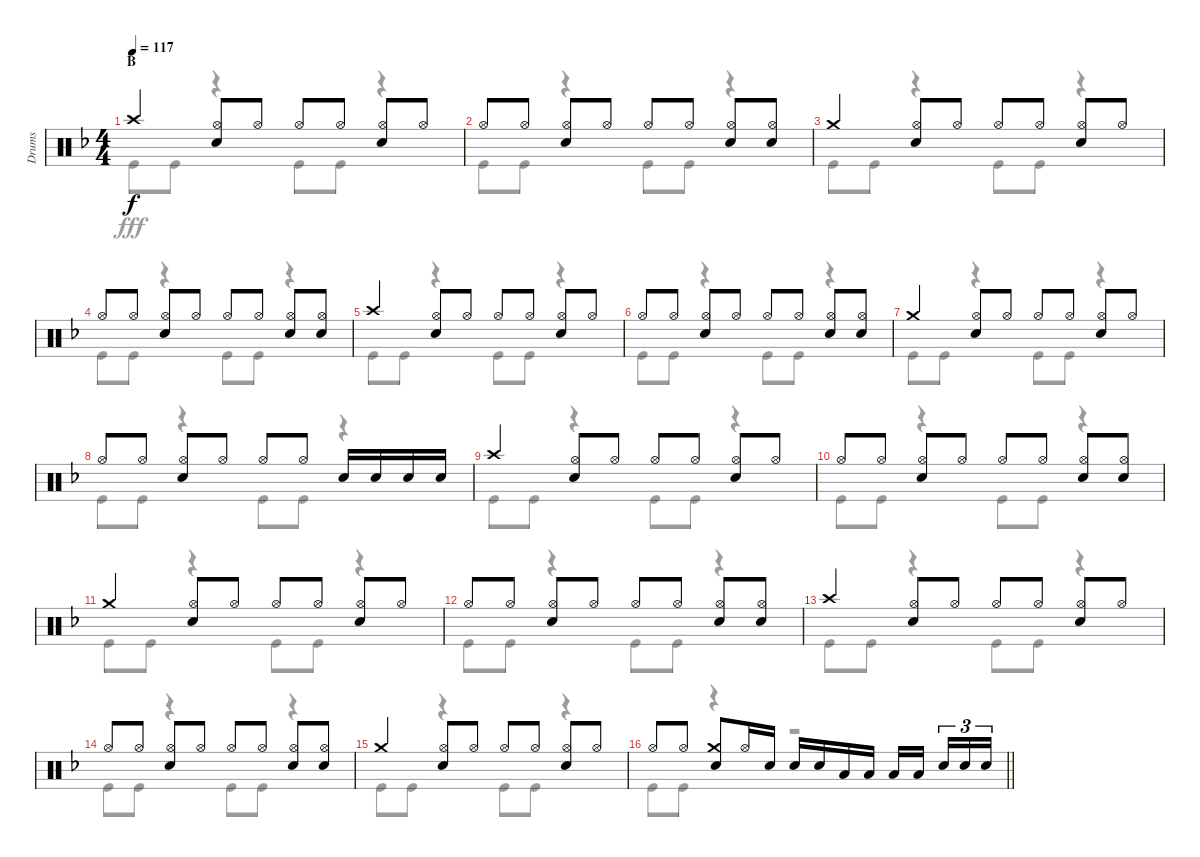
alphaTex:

\track ("Drums" "Drums") {instrument percussion}
\staff {score}
\articulation defaults
\voice
\ts (4 4)
\section ("" "B")
\tempo 117
\clef neutral
\ks f "Crash high (hit)".4{dy f}
("Hi-Hat (open)" "Snare (hit) 2").8 "Hi-Hat (open)".8 "Hi-Hat (open)".8 "Hi-Hat (open)".8 ("Hi-Hat (open)" "Snare (hit) 2").8 "Hi-Hat (open)".8 |
"Hi-Hat (open)".8 "Hi-Hat (open)".8 ("Hi-Hat (open)" "Snare (hit) 2").8 "Hi-Hat (open)".8 "Hi-Hat (open)".8 "Hi-Hat (open)".8 ("Hi-Hat (open)" "Snare (hit) 2").8 ("Hi-Hat (open)" "Snare (hit) 2").8 |
"Crash medium (hit)".4 ("Hi-Hat (open)" "Snare (hit) 2").8 "Hi-Hat (open)".8 "Hi-Hat (open)".8 "Hi-Hat (open)".8 ("Hi-Hat (open)" "Snare (hit) 2").8 "Hi-Hat (open)".8 |
"Hi-Hat (open)".8 "Hi-Hat (open)".8 ("Hi-Hat (open)" "Snare (hit) 2").8 "Hi-Hat (open)".8 "Hi-Hat (open)".8 "Hi-Hat (open)".8 ("Hi-Hat (open)" "Snare (hit) 2").8 ("Hi-Hat (open)" "Snare (hit) 2").8 |
"Crash high (hit)".4 ("Hi-Hat (open)" "Snare (hit) 2").8 "Hi-Hat (open)".8 "Hi-Hat (open)".8 "Hi-Hat (open)".8 ("Hi-Hat (open)" "Snare (hit) 2").8 "Hi-Hat (open)".8 |
"Hi-Hat (open)".8 "Hi-Hat (open)".8 ("Hi-Hat (open)" "Snare (hit) 2").8 "Hi-Hat (open)".8 "Hi-Hat (open)".8 "Hi-Hat (open)".8 ("Hi-Hat (open)" "Snare (hit) 2").8 ("Hi-Hat (open)" "Snare (hit) 2").8 |
"Crash medium (hit)".4 ("Hi-Hat (open)" "Snare (hit) 2").8 "Hi-Hat (open)".8 "Hi-Hat (open)".8 "Hi-Hat (open)".8 ("Hi-Hat (open)" "Snare (hit) 2").8 "Hi-Hat (open)".8 |
"Hi-Hat (open)".8 "Hi-Hat (open)".8 ("Hi-Hat (open)" "Snare (hit) 2").8 "Hi-Hat (open)".8 "Hi-Hat (open)".8 "Hi-Hat (open)".8 "Snare (hit) 2".16 "Snare (hit) 2".16 "Snare (hit) 2".16 "Snare (hit) 2".16 |
"Crash high (hit)".4 ("Hi-Hat (open)" "Snare (hit) 2").8 "Hi-Hat (open)".8 "Hi-Hat (open)".8 "Hi-Hat (open)".8 ("Hi-Hat (open)" "Snare (hit) 2").8 "Hi-Hat (open)".8 |
"Hi-Hat (open)".8 "Hi-Hat (open)".8 ("Hi-Hat (open)" "Snare (hit) 2").8 "Hi-Hat (open)".8 "Hi-Hat (open)".8 "Hi-Hat (open)".8 ("Hi-Hat (open)" "Snare (hit) 2").8 ("Hi-Hat (open)" "Snare (hit) 2").8 |
"Crash medium (hit)".4 ("Hi-Hat (open)" "Snare (hit) 2").8 "Hi-Hat (open)".8 "Hi-Hat (open)".8 "Hi-Hat (open)".8 ("Hi-Hat (open)" "Snare (hit) 2").8 "Hi-Hat (open)".8 |
"Hi-Hat (open)".8 "Hi-Hat (open)".8 ("Hi-Hat (open)" "Snare (hit) 2").8 "Hi-Hat (open)".8 "Hi-Hat (open)".8 "Hi-Hat (open)".8 ("Hi-Hat (open)" "Snare (hit) 2").8 ("Hi-Hat (open)" "Snare (hit) 2").8 |
"Crash high (hit)".4 ("Hi-Hat (open)" "Snare (hit) 2").8 "Hi-Hat (open)".8 "Hi-Hat (open)".8 "Hi-Hat (open)".8 ("Hi-Hat (open)" "Snare (hit) 2").8 "Hi-Hat (open)".8 |
"Hi-Hat (open)".8 "Hi-Hat (open)".8 ("Hi-Hat (open)" "Snare (hit) 2").8 "Hi-Hat (open)".8 "Hi-Hat (open)".8 "Hi-Hat (open)".8 ("Hi-Hat (open)" "Snare (hit) 2").8 ("Hi-Hat (open)" "Snare (hit) 2").8 |
"Crash medium (hit)".4 ("Hi-Hat (open)" "Snare (hit) 2").8 "Hi-Hat (open)".8 "Hi-Hat (open)".8 "Hi-Hat (open)".8 ("Hi-Hat (open)" "Snare (hit) 2").8 "Hi-Hat (open)".8 |
\barLineRight lightlight "Hi-Hat (open)".8 "Hi-Hat (open)".8
("Crash medium (hit)" "Snare (hit) 2").8 "Hi-Hat (open)".16 "Snare (hit) 2".16 "Snare (hit) 2".16 "Snare (hit) 2".16 "Low Tom (hit)".16 "Low Tom (hit)".16 "Low Tom (hit)".16 "Low Tom (hit)".16{beam splitsecondary} "Snare (hit) 2".16{tu (3 2)} "Snare (hit) 2".16{tu (3 2)} "Snare (hit) 2".16{tu (3 2)}
\voice
\clef neutral
\ottava regular
\simile none
\ks f "Kick (hit)".8{dy fff} "Kick (hit)".8
r.4 "Kick (hit)".8 "Kick (hit)".8 r.4 |
"Kick (hit)".8 "Kick (hit)".8 r.4 "Kick (hit)".8 "Kick (hit)".8 r.4 |
"Kick (hit)".8 "Kick (hit)".8 r.4 "Kick (hit)".8 "Kick (hit)".8 r.4 |
"Kick (hit)".8 "Kick (hit)".8 r.4 "Kick (hit)".8 "Kick (hit)".8 r.4 |
"Kick (hit)".8 "Kick (hit)".8 r.4 "Kick (hit)".8 "Kick (hit)".8 r.4 |
"Kick (hit)".8 "Kick (hit)".8 r.4 "Kick (hit)".8 "Kick (hit)".8 r.4 |
"Kick (hit)".8 "Kick (hit)".8 r.4 "Kick (hit)".8 "Kick (hit)".8 r.4 |
"Kick (hit)".8 "Kick (hit)".8 r.4 "Kick (hit)".8 "Kick (hit)".8 r.4 |
"Kick (hit)".8 "Kick (hit)".8 r.4 "Kick (hit)".8 "Kick (hit)".8 r.4 |
"Kick (hit)".8 "Kick (hit)".8 r.4 "Kick (hit)".8 "Kick (hit)".8 r.4 |
"Kick (hit)".8 "Kick (hit)".8 r.4 "Kick (hit)".8 "Kick (hit)".8 r.4 |
"Kick (hit)".8 "Kick (hit)".8 r.4 "Kick (hit)".8 "Kick (hit)".8 r.4 |
"Kick (hit)".8 "Kick (hit)".8 r.4 "Kick (hit)".8 "Kick (hit)".8 r.4 |
"Kick (hit)".8 "Kick (hit)".8 r.4 "Kick (hit)".8 "Kick (hit)".8 r.4 |
"Kick (hit)".8 "Kick (hit)".8 r.4 "Kick (hit)".8 "Kick (hit)".8 r.4 |
\barLineRight lightlight "Kick (hit)".8 "Kick (hit)".8
r.4 r.2
